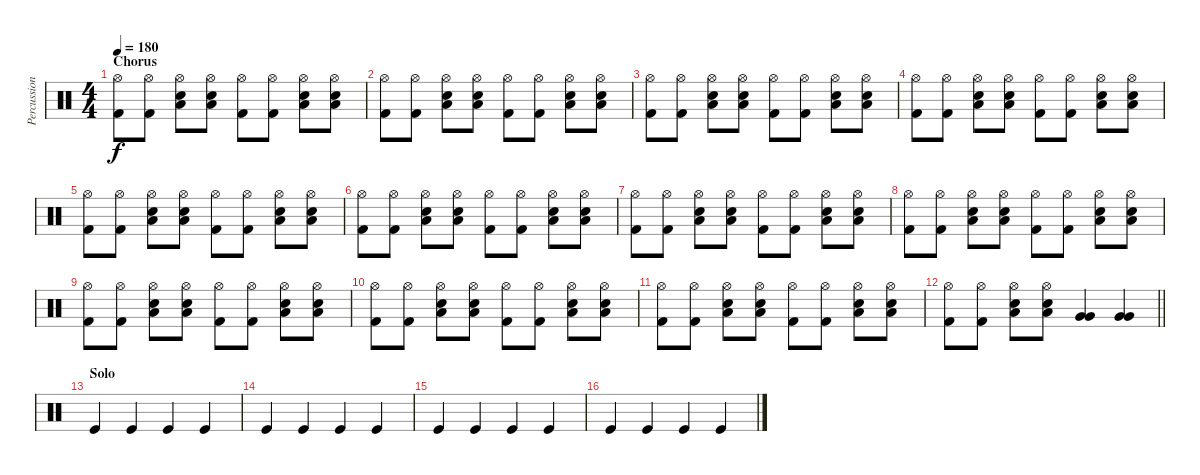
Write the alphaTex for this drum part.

\track ("Percussioni" "Percussion") {instrument percussion}
\staff {score}
\articulation defaults
\ts (4 4)
\section ("" "Chorus")
\tempo 180
\clef neutral
\ks c
("Hi-Hat (open)" "Kick (hit) 2").8{dy f} ("Hi-Hat (open)" "Kick (hit) 2").8 ("Hi-Hat (open)" "Electric Snare (hit)" "Low Floor Tom (hit)").8 ("Hi-Hat (open)" "Electric Snare (hit)" "Low Floor Tom (hit)").8 ("Hi-Hat (open)" "Kick (hit) 2").8 ("Hi-Hat (open)" "Kick (hit) 2").8 ("Hi-Hat (open)" "Electric Snare (hit)" "Low Floor Tom (hit)").8 ("Hi-Hat (open)" "Electric Snare (hit)" "Low Floor Tom (hit)").8 |
("Hi-Hat (open)" "Kick (hit) 2").8 ("Hi-Hat (open)" "Kick (hit) 2").8 ("Hi-Hat (open)" "Electric Snare (hit)" "Low Floor Tom (hit)").8 ("Hi-Hat (open)" "Electric Snare (hit)" "Low Floor Tom (hit)").8 ("Hi-Hat (open)" "Kick (hit) 2").8 ("Hi-Hat (open)" "Kick (hit) 2").8 ("Hi-Hat (open)" "Electric Snare (hit)" "Low Floor Tom (hit)").8 ("Hi-Hat (open)" "Electric Snare (hit)" "Low Floor Tom (hit)").8 |
("Hi-Hat (open)" "Kick (hit) 2").8 ("Hi-Hat (open)" "Kick (hit) 2").8 ("Hi-Hat (open)" "Electric Snare (hit)" "Low Floor Tom (hit)").8 ("Hi-Hat (open)" "Electric Snare (hit)" "Low Floor Tom (hit)").8 ("Hi-Hat (open)" "Kick (hit) 2").8 ("Hi-Hat (open)" "Kick (hit) 2").8 ("Hi-Hat (open)" "Electric Snare (hit)" "Low Floor Tom (hit)").8 ("Hi-Hat (open)" "Electric Snare (hit)" "Low Floor Tom (hit)").8 |
("Hi-Hat (open)" "Kick (hit) 2").8 ("Hi-Hat (open)" "Kick (hit) 2").8 ("Hi-Hat (open)" "Electric Snare (hit)" "Low Floor Tom (hit)").8 ("Hi-Hat (open)" "Electric Snare (hit)" "Low Floor Tom (hit)").8 ("Hi-Hat (open)" "Kick (hit) 2").8 ("Hi-Hat (open)" "Kick (hit) 2").8 ("Hi-Hat (open)" "Electric Snare (hit)" "Low Floor Tom (hit)").8 ("Hi-Hat (open)" "Electric Snare (hit)" "Low Floor Tom (hit)").8 |
("Hi-Hat (open)" "Kick (hit) 2").8 ("Hi-Hat (open)" "Kick (hit) 2").8 ("Hi-Hat (open)" "Electric Snare (hit)" "Low Floor Tom (hit)").8 ("Hi-Hat (open)" "Electric Snare (hit)" "Low Floor Tom (hit)").8 ("Hi-Hat (open)" "Kick (hit) 2").8 ("Hi-Hat (open)" "Kick (hit) 2").8 ("Hi-Hat (open)" "Electric Snare (hit)" "Low Floor Tom (hit)").8 ("Hi-Hat (open)" "Electric Snare (hit)" "Low Floor Tom (hit)").8 |
("Hi-Hat (open)" "Kick (hit) 2").8 ("Hi-Hat (open)" "Kick (hit) 2").8 ("Hi-Hat (open)" "Electric Snare (hit)" "Low Floor Tom (hit)").8 ("Hi-Hat (open)" "Electric Snare (hit)" "Low Floor Tom (hit)").8 ("Hi-Hat (open)" "Kick (hit) 2").8 ("Hi-Hat (open)" "Kick (hit) 2").8 ("Hi-Hat (open)" "Electric Snare (hit)" "Low Floor Tom (hit)").8 ("Hi-Hat (open)" "Electric Snare (hit)" "Low Floor Tom (hit)").8 |
("Hi-Hat (open)" "Kick (hit) 2").8 ("Hi-Hat (open)" "Kick (hit) 2").8 ("Hi-Hat (open)" "Electric Snare (hit)" "Low Floor Tom (hit)").8 ("Hi-Hat (open)" "Electric Snare (hit)" "Low Floor Tom (hit)").8 ("Hi-Hat (open)" "Kick (hit) 2").8 ("Hi-Hat (open)" "Kick (hit) 2").8 ("Hi-Hat (open)" "Electric Snare (hit)" "Low Floor Tom (hit)").8 ("Hi-Hat (open)" "Electric Snare (hit)" "Low Floor Tom (hit)").8 |
("Hi-Hat (open)" "Kick (hit) 2").8 ("Hi-Hat (open)" "Kick (hit) 2").8 ("Hi-Hat (open)" "Electric Snare (hit)" "Low Floor Tom (hit)").8 ("Hi-Hat (open)" "Electric Snare (hit)" "Low Floor Tom (hit)").8 ("Hi-Hat (open)" "Kick (hit) 2").8 ("Hi-Hat (open)" "Kick (hit) 2").8 ("Hi-Hat (open)" "Electric Snare (hit)" "Low Floor Tom (hit)").8 ("Hi-Hat (open)" "Electric Snare (hit)" "Low Floor Tom (hit)").8 |
("Hi-Hat (open)" "Kick (hit) 2").8 ("Hi-Hat (open)" "Kick (hit) 2").8 ("Hi-Hat (open)" "Electric Snare (hit)" "Low Floor Tom (hit)").8 ("Hi-Hat (open)" "Electric Snare (hit)" "Low Floor Tom (hit)").8 ("Hi-Hat (open)" "Kick (hit) 2").8 ("Hi-Hat (open)" "Kick (hit) 2").8 ("Hi-Hat (open)" "Electric Snare (hit)" "Low Floor Tom (hit)").8 ("Hi-Hat (open)" "Electric Snare (hit)" "Low Floor Tom (hit)").8 |
("Hi-Hat (open)" "Kick (hit) 2").8 ("Hi-Hat (open)" "Kick (hit) 2").8 ("Hi-Hat (open)" "Electric Snare (hit)" "Low Floor Tom (hit)").8 ("Hi-Hat (open)" "Electric Snare (hit)" "Low Floor Tom (hit)").8 ("Hi-Hat (open)" "Kick (hit) 2").8 ("Hi-Hat (open)" "Kick (hit) 2").8 ("Hi-Hat (open)" "Electric Snare (hit)" "Low Floor Tom (hit)").8 ("Hi-Hat (open)" "Electric Snare (hit)" "Low Floor Tom (hit)").8 |
("Hi-Hat (open)" "Kick (hit) 2").8 ("Hi-Hat (open)" "Kick (hit) 2").8 ("Hi-Hat (open)" "Electric Snare (hit)" "Low Floor Tom (hit)").8 ("Hi-Hat (open)" "Electric Snare (hit)" "Low Floor Tom (hit)").8 ("Hi-Hat (open)" "Kick (hit) 2").8 ("Hi-Hat (open)" "Kick (hit) 2").8 ("Hi-Hat (open)" "Electric Snare (hit)" "Low Floor Tom (hit)").8 ("Hi-Hat (open)" "Electric Snare (hit)" "Low Floor Tom (hit)").8 |
\barLineRight lightlight
("Hi-Hat (open)" "Kick (hit) 2").8 ("Hi-Hat (open)" "Kick (hit) 2").8 ("Hi-Hat (open)" "Electric Snare (hit)" "Low Floor Tom (hit)").8 ("Hi-Hat (open)" "Electric Snare (hit)" "Low Floor Tom (hit)").8 ("Very Low Tom (hit)" "Very Low Tom (hit)").4 ("Very Low Tom (hit)" "Very Low Tom (hit)").4 |
\section ("" "Solo")
"Kick (hit)".4 "Kick (hit)".4 "Kick (hit)".4 "Kick (hit)".4 |
"Kick (hit)".4 "Kick (hit)".4 "Kick (hit)".4 "Kick (hit)".4 |
"Kick (hit)".4 "Kick (hit)".4 "Kick (hit)".4 "Kick (hit)".4 |
"Kick (hit)".4 "Kick (hit)".4 "Kick (hit)".4 "Kick (hit)".4
